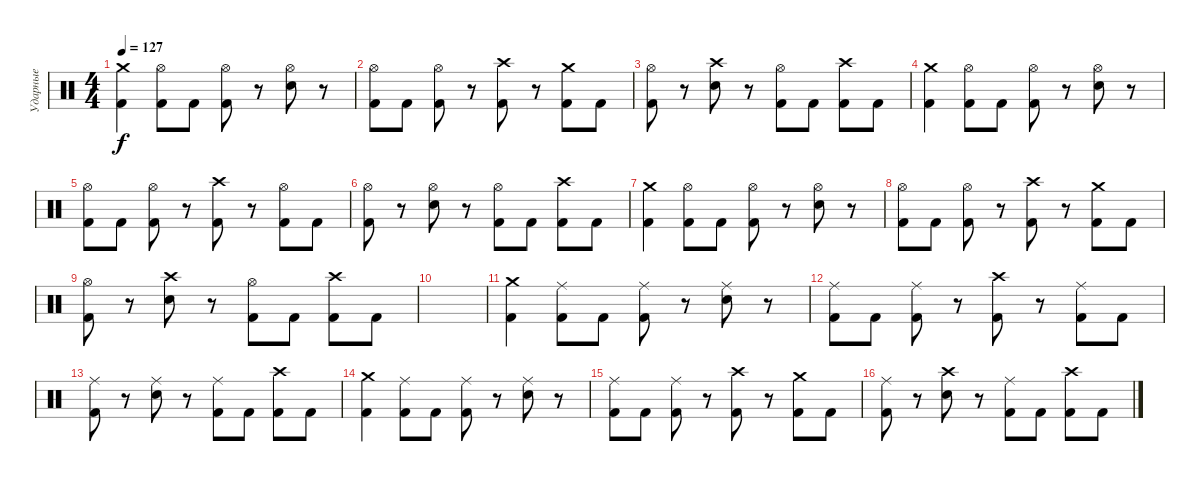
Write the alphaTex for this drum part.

\track ("Ударные" "Ударные") {instrument percussion}
\staff {score}
\articulation defaults
\ts (4 4)
\tempo 127
\clef neutral
\ks c
("Crash medium (hit)" "Kick (hit) 2").4{dy f} ("Hi-Hat (open)" "Kick (hit) 2").8 "Kick (hit) 2".8 ("Hi-Hat (open)" "Kick (hit) 2").8 r.8 ("Hi-Hat (open)" "Electric Snare (hit)").8 r.8 |
("Hi-Hat (open)" "Kick (hit) 2").8 "Kick (hit) 2".8 ("Hi-Hat (open)" "Kick (hit) 2").8 r.8 ("Crash high (hit)" "Kick (hit) 2").8 r.8 ("Crash medium (hit)" "Kick (hit) 2").8 "Kick (hit) 2".8 |
("Hi-Hat (open)" "Kick (hit) 2").8 r.8 ("Crash high (hit)" "Electric Snare (hit)").8 r.8 ("Hi-Hat (open)" "Kick (hit) 2").8 "Kick (hit) 2".8 ("Kick (hit) 2" "Crash high (hit)").8 "Kick (hit) 2".8 |
("Crash medium (hit)" "Kick (hit) 2").4 ("Hi-Hat (open)" "Kick (hit) 2").8 "Kick (hit) 2".8 ("Hi-Hat (open)" "Kick (hit) 2").8 r.8 ("Hi-Hat (open)" "Electric Snare (hit)").8 r.8 |
("Hi-Hat (open)" "Kick (hit) 2").8 "Kick (hit) 2".8 ("Hi-Hat (open)" "Kick (hit) 2").8 r.8 ("Crash high (hit)" "Kick (hit) 2").8 r.8 ("Hi-Hat (open)" "Kick (hit) 2").8 "Kick (hit) 2".8 |
("Hi-Hat (open)" "Kick (hit) 2").8 r.8 ("Hi-Hat (open)" "Electric Snare (hit)").8 r.8 ("Hi-Hat (open)" "Kick (hit) 2").8 "Kick (hit) 2".8 ("Kick (hit) 2" "Crash high (hit)").8 "Kick (hit) 2".8 |
("Crash medium (hit)" "Kick (hit) 2").4 ("Hi-Hat (open)" "Kick (hit) 2").8 "Kick (hit) 2".8 ("Hi-Hat (open)" "Kick (hit) 2").8 r.8 ("Hi-Hat (open)" "Electric Snare (hit)").8 r.8 |
("Hi-Hat (open)" "Kick (hit) 2").8 "Kick (hit) 2".8 ("Hi-Hat (open)" "Kick (hit) 2").8 r.8 ("Crash high (hit)" "Kick (hit) 2").8 r.8 ("Crash medium (hit)" "Kick (hit) 2").8 "Kick (hit) 2".8 |
("Hi-Hat (open)" "Kick (hit) 2").8 r.8 ("Crash high (hit)" "Electric Snare (hit)").8 r.8 ("Hi-Hat (open)" "Kick (hit) 2").8 "Kick (hit) 2".8 ("Kick (hit) 2" "Crash high (hit)").8 "Kick (hit) 2".8 |
|
("Crash medium (hit)" "Kick (hit) 2").4 ("Ride (middle)" "Kick (hit) 2").8 "Kick (hit) 2".8 ("Ride (middle)" "Kick (hit) 2").8 r.8 ("Ride (middle)" "Electric Snare (hit)").8 r.8 |
("Ride (middle)" "Kick (hit) 2").8 "Kick (hit) 2".8 ("Ride (middle)" "Kick (hit) 2").8 r.8 ("Crash high (hit)" "Kick (hit) 2").8 r.8 ("Ride (middle)" "Kick (hit) 2").8 "Kick (hit) 2".8 |
("Ride (middle)" "Kick (hit) 2").8 r.8 ("Ride (middle)" "Electric Snare (hit)").8 r.8 ("Ride (middle)" "Kick (hit) 2").8 "Kick (hit) 2".8 ("Kick (hit) 2" "Crash high (hit)").8 "Kick (hit) 2".8 |
("Crash medium (hit)" "Kick (hit) 2").4 ("Ride (middle)" "Kick (hit) 2").8 "Kick (hit) 2".8 ("Ride (middle)" "Kick (hit) 2").8 r.8 ("Ride (middle)" "Electric Snare (hit)").8 r.8 |
("Ride (middle)" "Kick (hit) 2").8 "Kick (hit) 2".8 ("Ride (middle)" "Kick (hit) 2").8 r.8 ("Crash high (hit)" "Kick (hit) 2").8 r.8 ("Crash medium (hit)" "Kick (hit) 2").8 "Kick (hit) 2".8 |
("Ride (middle)" "Kick (hit) 2").8 r.8 ("Crash high (hit)" "Electric Snare (hit)").8 r.8 ("Ride (middle)" "Kick (hit) 2").8 "Kick (hit) 2".8 ("Kick (hit) 2" "Crash high (hit)").8 "Kick (hit) 2".8
